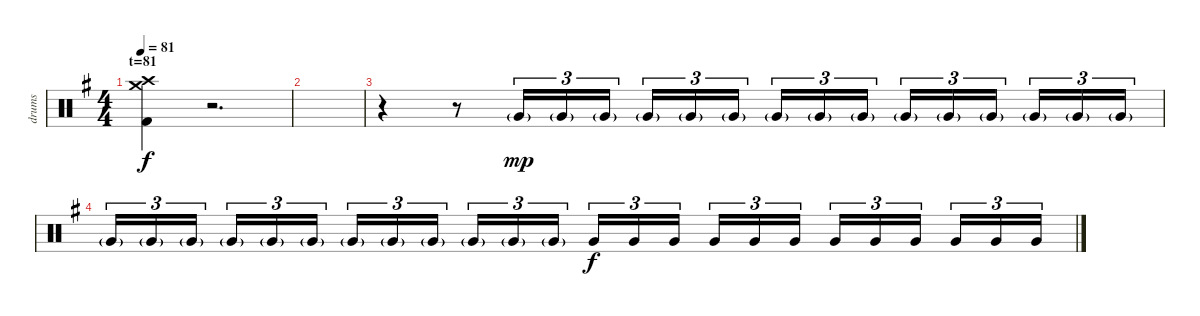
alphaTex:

\track ("drums" "drums") {instrument percussion}
\staff {score}
\articulation defaults
\ts (4 4)
\section ("" "t=81")
\tempo 81
\clef neutral
\ks g
("Crash high (hit)" "Crash medium (hit)" "Kick (hit) 2").4{dy f} r.2{d} |
|
r.4 r.8 "Very Low Tom (hit)"{g}.16{tu (3 2) dy mp} "Very Low Tom (hit)"{g}.16{tu (3 2)} "Very Low Tom (hit)"{g}.16{tu (3 2)} "Very Low Tom (hit)"{g}.16{tu (3 2)} "Very Low Tom (hit)"{g}.16{tu (3 2)} "Very Low Tom (hit)"{g}.16{tu (3 2) beam splitsecondary} "Very Low Tom (hit)"{g}.16{tu (3 2)} "Very Low Tom (hit)"{g}.16{tu (3 2)} "Very Low Tom (hit)"{g}.16{tu (3 2)} "Very Low Tom (hit)"{g}.16{tu (3 2)} "Very Low Tom (hit)"{g}.16{tu (3 2)} "Very Low Tom (hit)"{g}.16{tu (3 2) beam splitsecondary} "Very Low Tom (hit)"{g}.16{tu (3 2)} "Very Low Tom (hit)"{g}.16{tu (3 2)} "Very Low Tom (hit)"{g}.16{tu (3 2)} |
"Very Low Tom (hit)"{g}.16{tu (3 2)} "Very Low Tom (hit)"{g}.16{tu (3 2)} "Very Low Tom (hit)"{g}.16{tu (3 2) beam splitsecondary} "Very Low Tom (hit)"{g}.16{tu (3 2)} "Very Low Tom (hit)"{g}.16{tu (3 2)} "Very Low Tom (hit)"{g}.16{tu (3 2)} "Very Low Tom (hit)"{g}.16{tu (3 2)} "Very Low Tom (hit)"{g}.16{tu (3 2)} "Very Low Tom (hit)"{g}.16{tu (3 2) beam splitsecondary} "Very Low Tom (hit)"{g}.16{tu (3 2)} "Very Low Tom (hit)"{g}.16{tu (3 2)} "Very Low Tom (hit)"{g}.16{tu (3 2)} "Very Low Tom (hit)".16{tu (3 2) dy f} "Very Low Tom (hit)".16{tu (3 2)} "Very Low Tom (hit)".16{tu (3 2) beam splitsecondary} "Very Low Tom (hit)".16{tu (3 2)} "Very Low Tom (hit)".16{tu (3 2)} "Very Low Tom (hit)".16{tu (3 2)} "Very Low Tom (hit)".16{tu (3 2)} "Very Low Tom (hit)".16{tu (3 2)} "Very Low Tom (hit)".16{tu (3 2) beam splitsecondary} "Very Low Tom (hit)".16{tu (3 2)} "Very Low Tom (hit)".16{tu (3 2)} "Very Low Tom (hit)".16{tu (3 2)}
